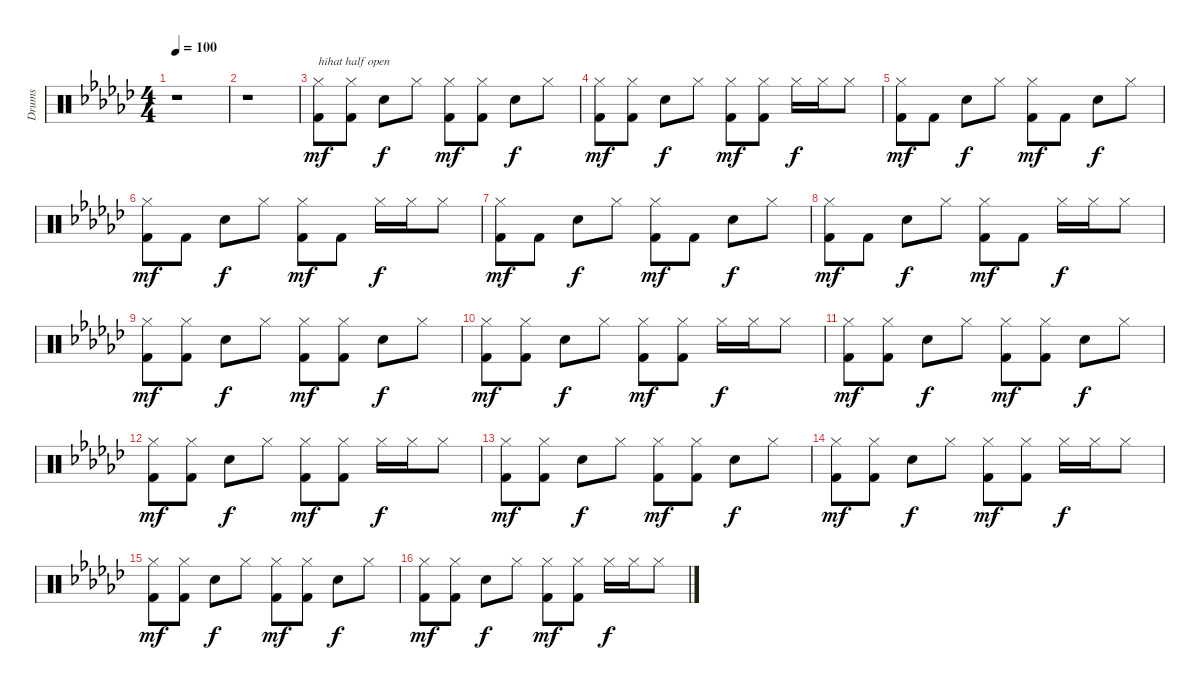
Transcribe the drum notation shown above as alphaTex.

\track ("Drums" "Drums") {instrument percussion}
\staff {score}
\articulation defaults
\ts (4 4)
\tempo 100
\clef neutral
\ks ebminor
r.1{dy mf} |
r.1 |
("Hi-Hat (closed)" "Kick (hit) 2").8{txt "hihat half open"} ("Hi-Hat (closed)" "Kick (hit) 2").8 "Snare (hit) 2".8{dy f} "Hi-Hat (closed)".8 ("Hi-Hat (closed)" "Kick (hit) 2").8{dy mf} ("Hi-Hat (closed)" "Kick (hit) 2").8 "Snare (hit) 2".8{dy f} "Hi-Hat (closed)".8 |
("Hi-Hat (closed)" "Kick (hit) 2").8{dy mf} ("Hi-Hat (closed)" "Kick (hit) 2").8 "Snare (hit) 2".8{dy f} "Hi-Hat (closed)".8 ("Hi-Hat (closed)" "Kick (hit) 2").8{dy mf} ("Hi-Hat (closed)" "Kick (hit) 2").8 "Hi-Hat (closed)".16{dy f} "Hi-Hat (closed)".16 "Hi-Hat (closed)".8 |
("Hi-Hat (closed)" "Kick (hit) 2").8{dy mf} "Kick (hit) 2".8 "Snare (hit) 2".8{dy f} "Hi-Hat (closed)".8 ("Hi-Hat (closed)" "Kick (hit) 2").8{dy mf} "Kick (hit) 2".8 "Snare (hit) 2".8{dy f} "Hi-Hat (closed)".8 |
("Hi-Hat (closed)" "Kick (hit) 2").8{dy mf} "Kick (hit) 2".8 "Snare (hit) 2".8{dy f} "Hi-Hat (closed)".8 ("Hi-Hat (closed)" "Kick (hit) 2").8{dy mf} "Kick (hit) 2".8 "Hi-Hat (closed)".16{dy f} "Hi-Hat (closed)".16 "Hi-Hat (closed)".8 |
("Hi-Hat (closed)" "Kick (hit) 2").8{dy mf} "Kick (hit) 2".8 "Snare (hit) 2".8{dy f} "Hi-Hat (closed)".8 ("Hi-Hat (closed)" "Kick (hit) 2").8{dy mf} "Kick (hit) 2".8 "Snare (hit) 2".8{dy f} "Hi-Hat (closed)".8 |
("Hi-Hat (closed)" "Kick (hit) 2").8{dy mf} "Kick (hit) 2".8 "Snare (hit) 2".8{dy f} "Hi-Hat (closed)".8 ("Hi-Hat (closed)" "Kick (hit) 2").8{dy mf} "Kick (hit) 2".8 "Hi-Hat (closed)".16{dy f} "Hi-Hat (closed)".16 "Hi-Hat (closed)".8 |
("Hi-Hat (closed)" "Kick (hit) 2").8{dy mf} ("Hi-Hat (closed)" "Kick (hit) 2").8 "Snare (hit) 2".8{dy f} "Hi-Hat (closed)".8 ("Hi-Hat (closed)" "Kick (hit) 2").8{dy mf} ("Hi-Hat (closed)" "Kick (hit) 2").8 "Snare (hit) 2".8{dy f} "Hi-Hat (closed)".8 |
("Hi-Hat (closed)" "Kick (hit) 2").8{dy mf} ("Hi-Hat (closed)" "Kick (hit) 2").8 "Snare (hit) 2".8{dy f} "Hi-Hat (closed)".8 ("Hi-Hat (closed)" "Kick (hit) 2").8{dy mf} ("Hi-Hat (closed)" "Kick (hit) 2").8 "Hi-Hat (closed)".16{dy f} "Hi-Hat (closed)".16 "Hi-Hat (closed)".8 |
("Hi-Hat (closed)" "Kick (hit) 2").8{dy mf} ("Hi-Hat (closed)" "Kick (hit) 2").8 "Snare (hit) 2".8{dy f} "Hi-Hat (closed)".8 ("Hi-Hat (closed)" "Kick (hit) 2").8{dy mf} ("Hi-Hat (closed)" "Kick (hit) 2").8 "Snare (hit) 2".8{dy f} "Hi-Hat (closed)".8 |
("Hi-Hat (closed)" "Kick (hit) 2").8{dy mf} ("Hi-Hat (closed)" "Kick (hit) 2").8 "Snare (hit) 2".8{dy f} "Hi-Hat (closed)".8 ("Hi-Hat (closed)" "Kick (hit) 2").8{dy mf} ("Hi-Hat (closed)" "Kick (hit) 2").8 "Hi-Hat (closed)".16{dy f} "Hi-Hat (closed)".16 "Hi-Hat (closed)".8 |
("Hi-Hat (closed)" "Kick (hit) 2").8{dy mf} ("Hi-Hat (closed)" "Kick (hit) 2").8 "Snare (hit) 2".8{dy f} "Hi-Hat (closed)".8 ("Hi-Hat (closed)" "Kick (hit) 2").8{dy mf} ("Hi-Hat (closed)" "Kick (hit) 2").8 "Snare (hit) 2".8{dy f} "Hi-Hat (closed)".8 |
("Hi-Hat (closed)" "Kick (hit) 2").8{dy mf} ("Hi-Hat (closed)" "Kick (hit) 2").8 "Snare (hit) 2".8{dy f} "Hi-Hat (closed)".8 ("Hi-Hat (closed)" "Kick (hit) 2").8{dy mf} ("Hi-Hat (closed)" "Kick (hit) 2").8 "Hi-Hat (closed)".16{dy f} "Hi-Hat (closed)".16 "Hi-Hat (closed)".8 |
("Hi-Hat (closed)" "Kick (hit) 2").8{dy mf} ("Hi-Hat (closed)" "Kick (hit) 2").8 "Snare (hit) 2".8{dy f} "Hi-Hat (closed)".8 ("Hi-Hat (closed)" "Kick (hit) 2").8{dy mf} ("Hi-Hat (closed)" "Kick (hit) 2").8 "Snare (hit) 2".8{dy f} "Hi-Hat (closed)".8 |
("Hi-Hat (closed)" "Kick (hit) 2").8{dy mf} ("Hi-Hat (closed)" "Kick (hit) 2").8 "Snare (hit) 2".8{dy f} "Hi-Hat (closed)".8 ("Hi-Hat (closed)" "Kick (hit) 2").8{dy mf} ("Hi-Hat (closed)" "Kick (hit) 2").8 "Hi-Hat (closed)".16{dy f} "Hi-Hat (closed)".16 "Hi-Hat (closed)".8
